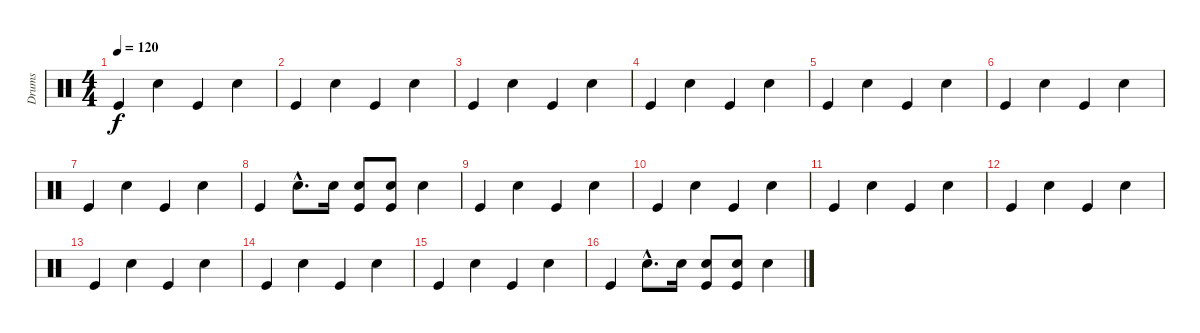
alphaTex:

\track ("Drums" "Drums") {instrument percussion}
\staff {score}
\articulation defaults
\ts (4 4)
\tempo 120
\clef neutral
\ks c "Kick (hit)".4{dy f} "Snare (hit) 2".4 "Kick (hit)".4 "Snare (hit) 2".4
|
"Kick (hit)".4 "Snare (hit) 2".4 "Kick (hit)".4 "Snare (hit) 2".4 |
"Kick (hit)".4 "Snare (hit) 2".4 "Kick (hit)".4 "Snare (hit) 2".4 |
"Kick (hit)".4 "Snare (hit) 2".4 "Kick (hit)".4 "Snare (hit) 2".4 |
"Kick (hit)".4 "Snare (hit) 2".4 "Kick (hit)".4 "Snare (hit) 2".4 |
"Kick (hit)".4 "Snare (hit) 2".4 "Kick (hit)".4 "Snare (hit) 2".4 |
"Kick (hit)".4 "Snare (hit) 2".4 "Kick (hit)".4 "Snare (hit) 2".4 |
"Kick (hit)".4 "Snare (hit) 2"{hac}.8{d} "Snare (hit) 2".16 ("Snare (hit) 2" "Kick (hit)").8 ("Snare (hit) 2" "Kick (hit)").8 "Snare (hit) 2".4 |
"Kick (hit)".4 "Snare (hit) 2".4 "Kick (hit)".4 "Snare (hit) 2".4 |
"Kick (hit)".4 "Snare (hit) 2".4 "Kick (hit)".4 "Snare (hit) 2".4 |
"Kick (hit)".4 "Snare (hit) 2".4 "Kick (hit)".4 "Snare (hit) 2".4 |
"Kick (hit)".4 "Snare (hit) 2".4 "Kick (hit)".4 "Snare (hit) 2".4 |
"Kick (hit)".4 "Snare (hit) 2".4 "Kick (hit)".4 "Snare (hit) 2".4 |
"Kick (hit)".4 "Snare (hit) 2".4 "Kick (hit)".4 "Snare (hit) 2".4 |
"Kick (hit)".4 "Snare (hit) 2".4 "Kick (hit)".4 "Snare (hit) 2".4 |
"Kick (hit)".4 "Snare (hit) 2"{hac}.8{d} "Snare (hit) 2".16 ("Snare (hit) 2" "Kick (hit)").8 ("Snare (hit) 2" "Kick (hit)").8 "Snare (hit) 2".4
